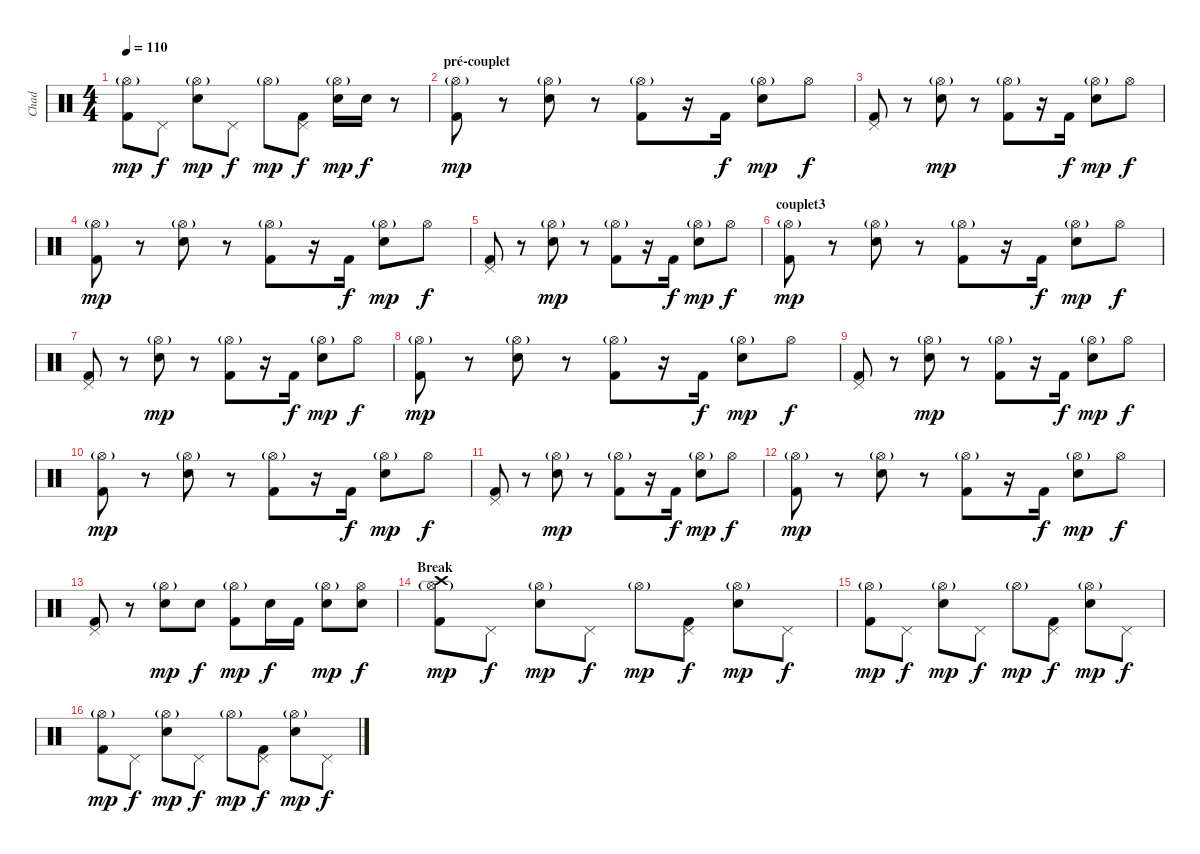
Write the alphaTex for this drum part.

\track ("Chad" "Chad") {instrument percussion}
\staff {score}
\articulation defaults
\ts (4 4)
\tempo 110
\clef neutral
\ks c
("Hi-Hat (open)"{g} "Kick (hit) 2").8{dy mp} "Pedal Hi-Hat (hit)".8{dy f} ("Hi-Hat (open)"{g} "Electric Snare (hit)").8{dy mp} "Pedal Hi-Hat (hit)".8{dy f} "Hi-Hat (open)"{g}.8{dy mp} ("Pedal Hi-Hat (hit)" "Kick (hit) 2").8{dy f} ("Hi-Hat (open)"{g} "Electric Snare (hit)").16{dy mp} "Electric Snare (hit)".16{dy f} r.8 |
\section ("" "pré-couplet")
("Hi-Hat (open)"{g} "Kick (hit) 2").8{dy mp} r.8 ("Hi-Hat (open)"{g} "Electric Snare (hit)").8 r.8 ("Hi-Hat (open)"{g} "Kick (hit) 2").8 r.16 "Kick (hit) 2".16{dy f} ("Hi-Hat (open)"{g} "Electric Snare (hit)").8{dy mp} "Hi-Hat (open)".8{dy f} |
("Pedal Hi-Hat (hit)" "Kick (hit) 2").8 r.8 ("Hi-Hat (open)"{g} "Electric Snare (hit)").8{dy mp} r.8 ("Hi-Hat (open)"{g} "Kick (hit) 2").8 r.16 "Kick (hit) 2".16{dy f} ("Hi-Hat (open)"{g} "Electric Snare (hit)").8{dy mp} "Hi-Hat (open)".8{dy f} |
("Hi-Hat (open)"{g} "Kick (hit) 2").8{dy mp} r.8 ("Hi-Hat (open)"{g} "Electric Snare (hit)").8 r.8 ("Hi-Hat (open)"{g} "Kick (hit) 2").8 r.16 "Kick (hit) 2".16{dy f} ("Hi-Hat (open)"{g} "Electric Snare (hit)").8{dy mp} "Hi-Hat (open)".8{dy f} |
("Pedal Hi-Hat (hit)" "Kick (hit) 2").8 r.8 ("Hi-Hat (open)"{g} "Electric Snare (hit)").8{dy mp} r.8 ("Hi-Hat (open)"{g} "Kick (hit) 2").8 r.16 "Kick (hit) 2".16{dy f} ("Hi-Hat (open)"{g} "Electric Snare (hit)").8{dy mp} "Hi-Hat (open)".8{dy f} |
\section ("" "couplet3")
("Hi-Hat (open)"{g} "Kick (hit) 2").8{dy mp} r.8 ("Hi-Hat (open)"{g} "Electric Snare (hit)").8 r.8 ("Hi-Hat (open)"{g} "Kick (hit) 2").8 r.16 "Kick (hit) 2".16{dy f} ("Hi-Hat (open)"{g} "Electric Snare (hit)").8{dy mp} "Hi-Hat (open)".8{dy f} |
("Pedal Hi-Hat (hit)" "Kick (hit) 2").8 r.8 ("Hi-Hat (open)"{g} "Electric Snare (hit)").8{dy mp} r.8 ("Hi-Hat (open)"{g} "Kick (hit) 2").8 r.16 "Kick (hit) 2".16{dy f} ("Hi-Hat (open)"{g} "Electric Snare (hit)").8{dy mp} "Hi-Hat (open)".8{dy f} |
("Hi-Hat (open)"{g} "Kick (hit) 2").8{dy mp} r.8 ("Hi-Hat (open)"{g} "Electric Snare (hit)").8 r.8 ("Hi-Hat (open)"{g} "Kick (hit) 2").8 r.16 "Kick (hit) 2".16{dy f} ("Hi-Hat (open)"{g} "Electric Snare (hit)").8{dy mp} "Hi-Hat (open)".8{dy f} |
("Pedal Hi-Hat (hit)" "Kick (hit) 2").8 r.8 ("Hi-Hat (open)"{g} "Electric Snare (hit)").8{dy mp} r.8 ("Hi-Hat (open)"{g} "Kick (hit) 2").8 r.16 "Kick (hit) 2".16{dy f} ("Hi-Hat (open)"{g} "Electric Snare (hit)").8{dy mp} "Hi-Hat (open)".8{dy f} |
("Hi-Hat (open)"{g} "Kick (hit) 2").8{dy mp} r.8 ("Hi-Hat (open)"{g} "Electric Snare (hit)").8 r.8 ("Hi-Hat (open)"{g} "Kick (hit) 2").8 r.16 "Kick (hit) 2".16{dy f} ("Hi-Hat (open)"{g} "Electric Snare (hit)").8{dy mp} "Hi-Hat (open)".8{dy f} |
("Pedal Hi-Hat (hit)" "Kick (hit) 2").8 r.8 ("Hi-Hat (open)"{g} "Electric Snare (hit)").8{dy mp} r.8 ("Hi-Hat (open)"{g} "Kick (hit) 2").8 r.16 "Kick (hit) 2".16{dy f} ("Hi-Hat (open)"{g} "Electric Snare (hit)").8{dy mp} "Hi-Hat (open)".8{dy f} |
("Hi-Hat (open)"{g} "Kick (hit) 2").8{dy mp} r.8 ("Hi-Hat (open)"{g} "Electric Snare (hit)").8 r.8 ("Hi-Hat (open)"{g} "Kick (hit) 2").8 r.16 "Kick (hit) 2".16{dy f} ("Hi-Hat (open)"{g} "Electric Snare (hit)").8{dy mp} "Hi-Hat (open)".8{dy f} |
("Pedal Hi-Hat (hit)" "Kick (hit) 2").8 r.8 ("Hi-Hat (open)"{g} "Electric Snare (hit)").8{dy mp} "Electric Snare (hit)".8{dy f} ("Hi-Hat (open)"{g} "Kick (hit) 2").8{dy mp} "Electric Snare (hit)".16{dy f} "Kick (hit) 2".16 ("Hi-Hat (open)"{g} "Electric Snare (hit)").8{dy mp} ("Hi-Hat (open)" "Electric Snare (hit)").8{dy f} |
\section ("" "Break")
("Crash high (hit)" "Hi-Hat (open)"{g} "Kick (hit) 2").8{dy mp} "Pedal Hi-Hat (hit)".8{dy f} ("Hi-Hat (open)"{g} "Electric Snare (hit)").8{dy mp} "Pedal Hi-Hat (hit)".8{dy f} "Hi-Hat (open)"{g}.8{dy mp} ("Pedal Hi-Hat (hit)" "Kick (hit) 2").8{dy f} ("Hi-Hat (open)"{g} "Electric Snare (hit)").8{dy mp} "Pedal Hi-Hat (hit)".8{dy f} |
("Hi-Hat (open)"{g} "Kick (hit) 2").8{dy mp} "Pedal Hi-Hat (hit)".8{dy f} ("Hi-Hat (open)"{g} "Electric Snare (hit)").8{dy mp} "Pedal Hi-Hat (hit)".8{dy f} "Hi-Hat (open)"{g}.8{dy mp} ("Pedal Hi-Hat (hit)" "Kick (hit) 2").8{dy f} ("Hi-Hat (open)"{g} "Electric Snare (hit)").8{dy mp} "Pedal Hi-Hat (hit)".8{dy f} |
("Hi-Hat (open)"{g} "Kick (hit) 2").8{dy mp} "Pedal Hi-Hat (hit)".8{dy f} ("Hi-Hat (open)"{g} "Electric Snare (hit)").8{dy mp} "Pedal Hi-Hat (hit)".8{dy f} "Hi-Hat (open)"{g}.8{dy mp} ("Pedal Hi-Hat (hit)" "Kick (hit) 2").8{dy f} ("Hi-Hat (open)"{g} "Electric Snare (hit)").8{dy mp} "Pedal Hi-Hat (hit)".8{dy f}
